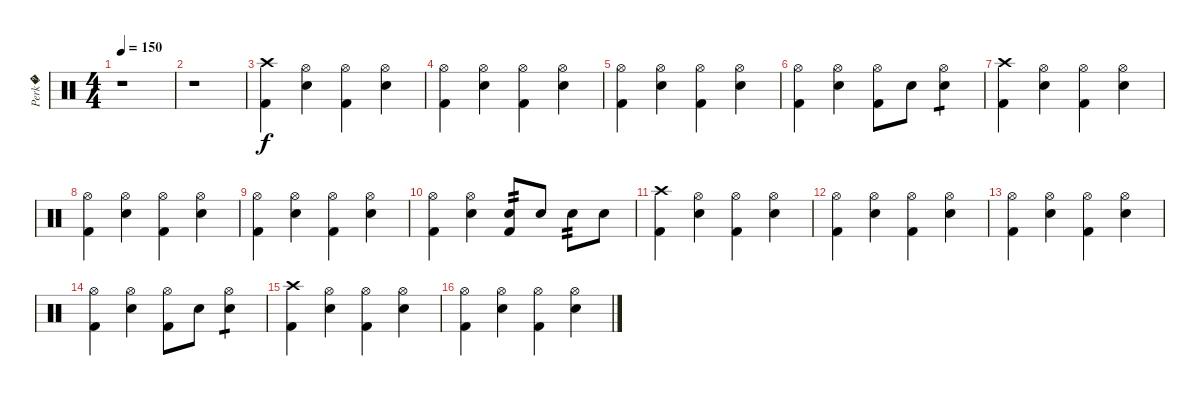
\track ("Perk�" "Perk�") {instrument percussion}
\staff {score}
\articulation defaults
\ts (4 4)
\tempo 150
\clef neutral
\ks c
r.1{dy f} |
r.1 |
("Crash high (hit)" "Kick (hit) 2").4 ("Hi-Hat (open)" "Snare (hit) 2").4 ("Hi-Hat (open)" "Kick (hit) 2").4 ("Hi-Hat (open)" "Snare (hit) 2").4 |
("Hi-Hat (open)" "Kick (hit) 2").4 ("Hi-Hat (open)" "Snare (hit) 2").4 ("Hi-Hat (open)" "Kick (hit) 2").4 ("Hi-Hat (open)" "Snare (hit) 2").4 |
("Hi-Hat (open)" "Kick (hit) 2").4 ("Hi-Hat (open)" "Snare (hit) 2").4 ("Hi-Hat (open)" "Kick (hit) 2").4 ("Hi-Hat (open)" "Snare (hit) 2").4 |
("Hi-Hat (open)" "Kick (hit) 2").4 ("Hi-Hat (open)" "Snare (hit) 2").4 ("Hi-Hat (open)" "Kick (hit) 2").8 "Snare (hit) 2".8 ("Hi-Hat (open)" "Snare (hit) 2").4{tp 1} |
("Crash high (hit)" "Kick (hit) 2").4 ("Hi-Hat (open)" "Snare (hit) 2").4 ("Hi-Hat (open)" "Kick (hit) 2").4 ("Hi-Hat (open)" "Snare (hit) 2").4 |
("Hi-Hat (open)" "Kick (hit) 2").4 ("Hi-Hat (open)" "Snare (hit) 2").4 ("Hi-Hat (open)" "Kick (hit) 2").4 ("Hi-Hat (open)" "Snare (hit) 2").4 |
("Hi-Hat (open)" "Kick (hit) 2").4 ("Hi-Hat (open)" "Snare (hit) 2").4 ("Hi-Hat (open)" "Kick (hit) 2").4 ("Hi-Hat (open)" "Snare (hit) 2").4 |
("Hi-Hat (open)" "Kick (hit) 2").4 ("Hi-Hat (open)" "Snare (hit) 2").4 ("Snare (hit) 2" "Kick (hit) 2").8{tp 2} "Snare (hit) 2".8 "Snare (hit) 2".8{tp 2} "Snare (hit) 2".8 |
("Crash high (hit)" "Kick (hit) 2").4 ("Hi-Hat (open)" "Snare (hit) 2").4 ("Hi-Hat (open)" "Kick (hit) 2").4 ("Hi-Hat (open)" "Snare (hit) 2").4 |
("Hi-Hat (open)" "Kick (hit) 2").4 ("Hi-Hat (open)" "Snare (hit) 2").4 ("Hi-Hat (open)" "Kick (hit) 2").4 ("Hi-Hat (open)" "Snare (hit) 2").4 |
("Hi-Hat (open)" "Kick (hit) 2").4 ("Hi-Hat (open)" "Snare (hit) 2").4 ("Hi-Hat (open)" "Kick (hit) 2").4 ("Hi-Hat (open)" "Snare (hit) 2").4 |
("Hi-Hat (open)" "Kick (hit) 2").4 ("Hi-Hat (open)" "Snare (hit) 2").4 ("Hi-Hat (open)" "Kick (hit) 2").8 "Snare (hit) 2".8 ("Hi-Hat (open)" "Snare (hit) 2").4{tp 1} |
("Crash high (hit)" "Kick (hit) 2").4 ("Hi-Hat (open)" "Snare (hit) 2").4 ("Hi-Hat (open)" "Kick (hit) 2").4 ("Hi-Hat (open)" "Snare (hit) 2").4 |
("Hi-Hat (open)" "Kick (hit) 2").4 ("Hi-Hat (open)" "Snare (hit) 2").4 ("Hi-Hat (open)" "Kick (hit) 2").4 ("Hi-Hat (open)" "Snare (hit) 2").4
